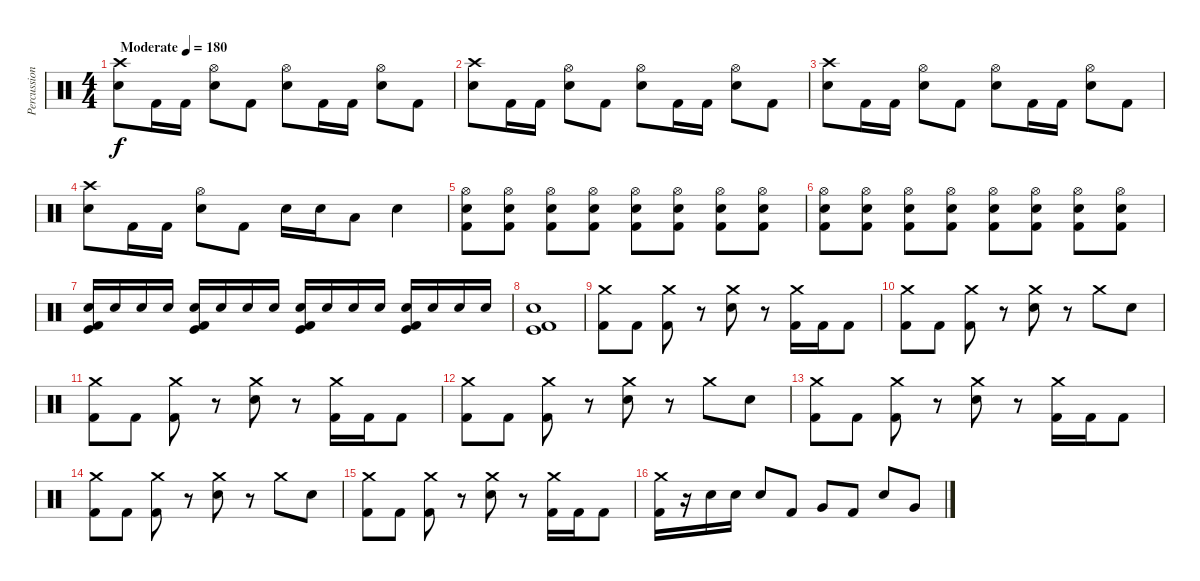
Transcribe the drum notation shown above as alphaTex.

\track ("Percussions" "Percussion") {instrument percussion}
\staff {score}
\articulation defaults
\ts (4 4)
\tempo (180 "Moderate")
\clef neutral
\ks c
("Crash high (hit)" "Electric Snare (hit)").8{dy f} "Kick (hit) 2".16 "Kick (hit) 2".16 ("Hi-Hat (open)" "Electric Snare (hit)").8 "Kick (hit) 2".8 ("Hi-Hat (open)" "Electric Snare (hit)").8 "Kick (hit) 2".16 "Kick (hit) 2".16 ("Hi-Hat (open)" "Electric Snare (hit)").8 "Kick (hit) 2".8 |
("Crash high (hit)" "Electric Snare (hit)").8 "Kick (hit) 2".16 "Kick (hit) 2".16 ("Hi-Hat (open)" "Electric Snare (hit)").8 "Kick (hit) 2".8 ("Hi-Hat (open)" "Electric Snare (hit)").8 "Kick (hit) 2".16 "Kick (hit) 2".16 ("Hi-Hat (open)" "Electric Snare (hit)").8 "Kick (hit) 2".8 |
("Crash high (hit)" "Electric Snare (hit)").8 "Kick (hit) 2".16 "Kick (hit) 2".16 ("Hi-Hat (open)" "Electric Snare (hit)").8 "Kick (hit) 2".8 ("Hi-Hat (open)" "Electric Snare (hit)").8 "Kick (hit) 2".16 "Kick (hit) 2".16 ("Hi-Hat (open)" "Electric Snare (hit)").8 "Kick (hit) 2".8 |
("Crash high (hit)" "Electric Snare (hit)").8 "Kick (hit) 2".16 "Kick (hit) 2".16 ("Hi-Hat (open)" "Electric Snare (hit)").8 "Kick (hit) 2".8 "Electric Snare (hit)".16 "Electric Snare (hit)".16 "Low Floor Tom (hit)".8 "Electric Snare (hit)".4 |
("Hi-Hat (open)" "Electric Snare (hit)" "Kick (hit) 2").8 ("Hi-Hat (open)" "Electric Snare (hit)" "Kick (hit) 2").8 ("Hi-Hat (open)" "Electric Snare (hit)" "Kick (hit) 2").8 ("Hi-Hat (open)" "Electric Snare (hit)" "Kick (hit) 2").8 ("Hi-Hat (open)" "Electric Snare (hit)" "Kick (hit) 2").8 ("Hi-Hat (open)" "Electric Snare (hit)" "Kick (hit) 2").8 ("Hi-Hat (open)" "Electric Snare (hit)" "Kick (hit) 2").8 ("Hi-Hat (open)" "Electric Snare (hit)" "Kick (hit) 2").8 |
("Hi-Hat (open)" "Electric Snare (hit)" "Kick (hit) 2").8 ("Hi-Hat (open)" "Electric Snare (hit)" "Kick (hit) 2").8 ("Hi-Hat (open)" "Electric Snare (hit)" "Kick (hit) 2").8 ("Hi-Hat (open)" "Electric Snare (hit)" "Kick (hit) 2").8 ("Hi-Hat (open)" "Electric Snare (hit)" "Kick (hit) 2").8 ("Hi-Hat (open)" "Electric Snare (hit)" "Kick (hit) 2").8 ("Hi-Hat (open)" "Electric Snare (hit)" "Kick (hit) 2").8 ("Hi-Hat (open)" "Electric Snare (hit)" "Kick (hit) 2").8 |
("Electric Snare (hit)" "Kick (hit)" "Kick (hit) 2").16 "Electric Snare (hit)".16 "Electric Snare (hit)".16 "Electric Snare (hit)".16 ("Electric Snare (hit)" "Kick (hit)" "Kick (hit) 2").16 "Electric Snare (hit)".16 "Electric Snare (hit)".16 "Electric Snare (hit)".16 ("Electric Snare (hit)" "Kick (hit)" "Kick (hit) 2").16 "Electric Snare (hit)".16 "Electric Snare (hit)".16 "Electric Snare (hit)".16 ("Electric Snare (hit)" "Kick (hit)" "Kick (hit) 2").16 "Electric Snare (hit)".16 "Electric Snare (hit)".16 "Electric Snare (hit)".16 |
("Electric Snare (hit)" "Kick (hit)" "Kick (hit) 2").1 |
("Crash medium (hit)" "Kick (hit) 2").8 "Kick (hit) 2".8 ("Crash medium (hit)" "Kick (hit) 2").8 r.8 ("Crash medium (hit)" "Electric Snare (hit)").8 r.8 ("Crash medium (hit)" "Kick (hit) 2").16 "Kick (hit) 2".16 "Kick (hit) 2".8 |
("Crash medium (hit)" "Kick (hit) 2").8 "Kick (hit) 2".8 ("Crash medium (hit)" "Kick (hit) 2").8 r.8 ("Crash medium (hit)" "Electric Snare (hit)").8 r.8 "Crash medium (hit)".8 "Electric Snare (hit)".8 |
("Crash medium (hit)" "Kick (hit) 2").8 "Kick (hit) 2".8 ("Crash medium (hit)" "Kick (hit) 2").8 r.8 ("Crash medium (hit)" "Electric Snare (hit)").8 r.8 ("Crash medium (hit)" "Kick (hit) 2").16 "Kick (hit) 2".16 "Kick (hit) 2".8 |
("Crash medium (hit)" "Kick (hit) 2").8 "Kick (hit) 2".8 ("Crash medium (hit)" "Kick (hit) 2").8 r.8 ("Crash medium (hit)" "Electric Snare (hit)").8 r.8 "Crash medium (hit)".8 "Electric Snare (hit)".8 |
("Crash medium (hit)" "Kick (hit) 2").8 "Kick (hit) 2".8 ("Crash medium (hit)" "Kick (hit) 2").8 r.8 ("Crash medium (hit)" "Electric Snare (hit)").8 r.8 ("Crash medium (hit)" "Kick (hit) 2").16 "Kick (hit) 2".16 "Kick (hit) 2".8 |
("Crash medium (hit)" "Kick (hit) 2").8 "Kick (hit) 2".8 ("Crash medium (hit)" "Kick (hit) 2").8 r.8 ("Crash medium (hit)" "Electric Snare (hit)").8 r.8 "Crash medium (hit)".8 "Electric Snare (hit)".8 |
("Crash medium (hit)" "Kick (hit) 2").8 "Kick (hit) 2".8 ("Crash medium (hit)" "Kick (hit) 2").8 r.8 ("Crash medium (hit)" "Electric Snare (hit)").8 r.8 ("Crash medium (hit)" "Kick (hit) 2").16 "Kick (hit) 2".16 "Kick (hit) 2".8 |
("Crash medium (hit)" "Kick (hit) 2").16 r.16 "Electric Snare (hit)".16 "Electric Snare (hit)".16 "Electric Snare (hit)".8 "Kick (hit) 2".8 "Very Low Tom (hit)".8 "Kick (hit) 2".8 "Electric Snare (hit)".8 "Very Low Tom (hit)".8
